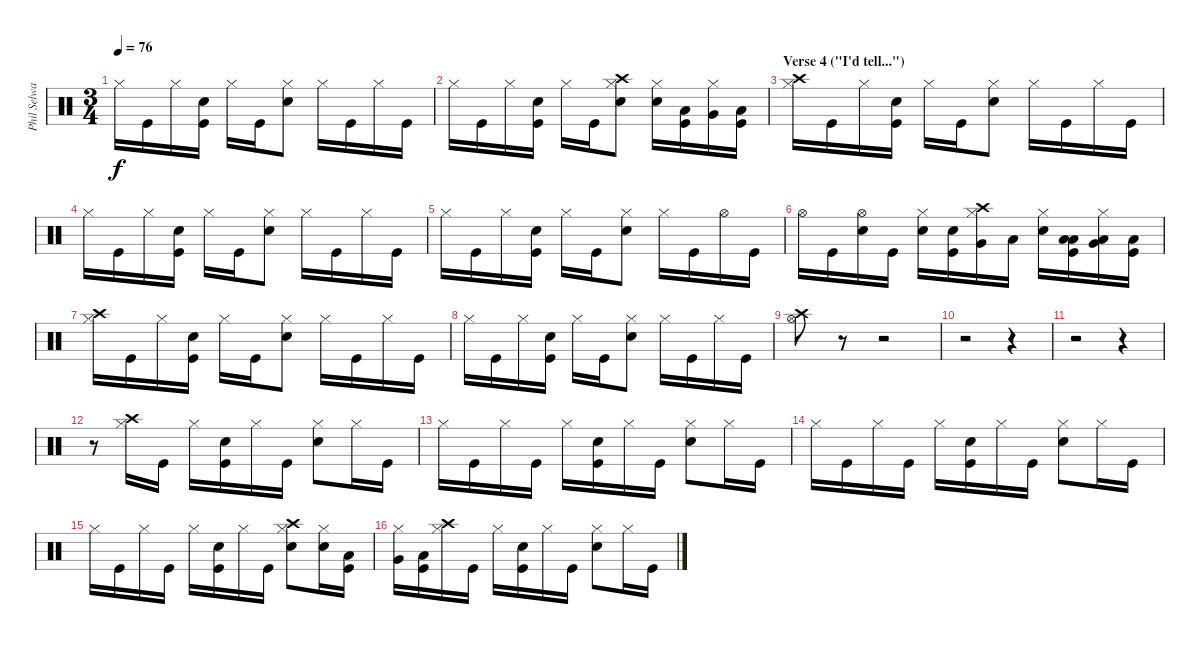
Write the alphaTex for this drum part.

\track ("Phil Selway" "Phil Selwa") {instrument percussion}
\staff {score}
\articulation defaults
\ts (3 4)
\tempo 76
\clef neutral
\ks c "Hi-Hat (closed)".16{dy f} "Kick (hit)".16 "Hi-Hat (closed)".16
("Kick (hit)" "Snare (hit) 2").16 "Hi-Hat (closed)".16 "Kick (hit)".16 ("Snare (hit) 2" "Hi-Hat (closed)").8 "Hi-Hat (closed)".16 "Kick (hit)".16 "Hi-Hat (closed)".16 "Kick (hit)".16 |
"Hi-Hat (closed)".16 "Kick (hit)".16 "Hi-Hat (closed)".16 ("Kick (hit)" "Snare (hit) 2").16 "Hi-Hat (closed)".16 "Kick (hit)".16 ("Snare (hit) 2" "Hi-Hat (closed)" "Crash high (hit)").8 ("Snare (hit) 2" "Hi-Hat (closed)").16 ("Kick (hit)" "Low Tom (hit)").16 ("Hi-Hat (closed)" "Very Low Tom (hit)").16 ("Kick (hit)" "Low Floor Tom (hit)").16 |
\section ("" "Verse 4 (\"I'd tell...\")")
("Hi-Hat (closed)" "Crash high (hit)").16 "Kick (hit)".16 "Hi-Hat (closed)".16 ("Kick (hit)" "Snare (hit) 2").16 "Hi-Hat (closed)".16 "Kick (hit)".16 ("Snare (hit) 2" "Hi-Hat (closed)").8 "Hi-Hat (closed)".16 "Kick (hit)".16 "Hi-Hat (closed)".16 "Kick (hit)".16 |
"Hi-Hat (closed)".16 "Kick (hit)".16 "Hi-Hat (closed)".16 ("Kick (hit)" "Snare (hit) 2").16 "Hi-Hat (closed)".16 "Kick (hit)".16 ("Snare (hit) 2" "Hi-Hat (closed)").8 "Hi-Hat (closed)".16 "Kick (hit)".16 "Hi-Hat (closed)".16 "Kick (hit)".16 |
"Hi-Hat (closed)".16 "Kick (hit)".16 "Hi-Hat (closed)".16 ("Kick (hit)" "Snare (hit) 2").16 "Hi-Hat (closed)".16 "Kick (hit)".16 ("Snare (hit) 2" "Hi-Hat (closed)").8 "Hi-Hat (closed)".16 "Kick (hit)".16 "Hi-Hat (open)".16 "Kick (hit)".16 |
"Hi-Hat (open)".16 "Kick (hit)".16 ("Snare (hit) 2" "Hi-Hat (open)").16 "Kick (hit)".16 ("Snare (hit) 2" "Hi-Hat (closed)").16 ("Kick (hit)" "Snare (hit) 2").16 ("Hi-Hat (closed)" "Very Low Tom (hit)" "Crash high (hit)").16 "Low Tom (hit)".16 ("Snare (hit) 2" "Hi-Hat (closed)").16 ("Kick (hit)" "Low Floor Tom (hit)" "Low Tom (hit)").16 ("Hi-Hat (closed)" "Very Low Tom (hit)" "Low Tom (hit)").16 ("Kick (hit)" "Low Floor Tom (hit)").16 |
("Hi-Hat (closed)" "Crash high (hit)").16 "Kick (hit)".16 "Hi-Hat (closed)".16 ("Kick (hit)" "Snare (hit) 2").16 "Hi-Hat (closed)".16 "Kick (hit)".16 ("Snare (hit) 2" "Hi-Hat (closed)").8 "Hi-Hat (closed)".16 "Kick (hit)".16 "Hi-Hat (closed)".16 "Kick (hit)".16 |
"Hi-Hat (closed)".16 "Kick (hit)".16 "Hi-Hat (closed)".16 ("Kick (hit)" "Snare (hit) 2").16 "Hi-Hat (closed)".16 "Kick (hit)".16 ("Snare (hit) 2" "Hi-Hat (closed)").8 "Hi-Hat (closed)".16 "Kick (hit)".16 "Hi-Hat (closed)".16 "Kick (hit)".16 |
("Hi-Hat (open)" "Crash high (hit)").8 r.8 r.2 |
r.2 r.4 |
r.2 r.4 |
r.8 ("Hi-Hat (closed)" "Crash high (hit)").16 "Kick (hit)".16 "Hi-Hat (closed)".16 ("Kick (hit)" "Snare (hit) 2").16 "Hi-Hat (closed)".16 "Kick (hit)".16 ("Snare (hit) 2" "Hi-Hat (closed)").8 "Hi-Hat (closed)".16 "Kick (hit)".16 |
"Hi-Hat (closed)".16 "Kick (hit)".16 "Hi-Hat (closed)".16 "Kick (hit)".16 "Hi-Hat (closed)".16 ("Kick (hit)" "Snare (hit) 2").16 "Hi-Hat (closed)".16 "Kick (hit)".16 ("Snare (hit) 2" "Hi-Hat (closed)").8 "Hi-Hat (closed)".16 "Kick (hit)".16 |
"Hi-Hat (closed)".16 "Kick (hit)".16 "Hi-Hat (closed)".16 "Kick (hit)".16 "Hi-Hat (closed)".16 ("Kick (hit)" "Snare (hit) 2").16 "Hi-Hat (closed)".16 "Kick (hit)".16 ("Snare (hit) 2" "Hi-Hat (closed)").8 "Hi-Hat (closed)".16 "Kick (hit)".16 |
"Hi-Hat (closed)".16 "Kick (hit)".16 "Hi-Hat (closed)".16 "Kick (hit)".16 "Hi-Hat (closed)".16 ("Kick (hit)" "Snare (hit) 2").16 "Hi-Hat (closed)".16 "Kick (hit)".16 ("Snare (hit) 2" "Hi-Hat (closed)" "Crash high (hit)").8 ("Snare (hit) 2" "Hi-Hat (closed)").16 ("Kick (hit)" "Low Tom (hit)").16 |
("Hi-Hat (closed)" "Very Low Tom (hit)").16 ("Kick (hit)" "Low Floor Tom (hit)").16 ("Hi-Hat (closed)" "Crash high (hit)").16 "Kick (hit)".16 "Hi-Hat (closed)".16 ("Kick (hit)" "Snare (hit) 2").16 "Hi-Hat (closed)".16 "Kick (hit)".16 ("Snare (hit) 2" "Hi-Hat (closed)").8 "Hi-Hat (closed)".16 "Kick (hit)".16
